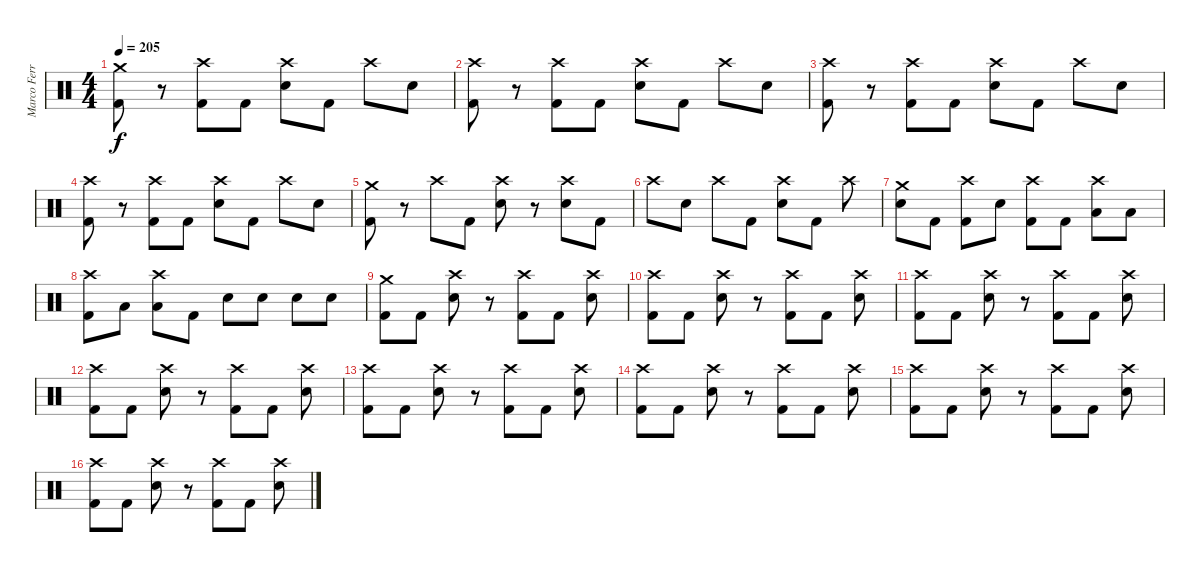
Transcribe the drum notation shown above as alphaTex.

\track ("Marco Ferro" "Marco Ferr") {instrument percussion}
\staff {score}
\articulation defaults
\ts (4 4)
\tempo 205
\clef neutral
\ks c
("Crash medium (hit)" "Kick (hit) 2").8{dy f} r.8 ("Crash high (hit)" "Kick (hit) 2").8 "Kick (hit) 2".8 ("Crash high (hit)" "Electric Snare (hit)").8 "Kick (hit) 2".8 "Crash high (hit)".8 "Electric Snare (hit)".8 |
("Crash high (hit)" "Kick (hit) 2").8 r.8 ("Crash high (hit)" "Kick (hit) 2").8 "Kick (hit) 2".8 ("Crash high (hit)" "Electric Snare (hit)").8 "Kick (hit) 2".8 "Crash high (hit)".8 "Electric Snare (hit)".8 |
("Crash high (hit)" "Kick (hit) 2").8 r.8 ("Crash high (hit)" "Kick (hit) 2").8 "Kick (hit) 2".8 ("Crash high (hit)" "Electric Snare (hit)").8 "Kick (hit) 2".8 "Crash high (hit)".8 "Electric Snare (hit)".8 |
("Crash high (hit)" "Kick (hit) 2").8 r.8 ("Crash high (hit)" "Kick (hit) 2").8 "Kick (hit) 2".8 ("Crash high (hit)" "Electric Snare (hit)").8 "Kick (hit) 2".8 "Crash high (hit)".8 "Electric Snare (hit)".8 |
("Crash medium (hit)" "Kick (hit) 2").8 r.8 "Crash high (hit)".8 "Kick (hit) 2".8 ("Crash high (hit)" "Electric Snare (hit)").8 r.8 ("Crash high (hit)" "Electric Snare (hit)").8 "Kick (hit) 2".8 |
"Crash high (hit)".8 "Electric Snare (hit)".8 "Crash high (hit)".8 "Kick (hit) 2".8 ("Crash high (hit)" "Electric Snare (hit)").8 "Kick (hit) 2".8 "Crash high (hit)".8 |
("Crash medium (hit)" "Electric Snare (hit)").8 "Kick (hit) 2".8 ("Crash high (hit)" "Kick (hit) 2").8 "Electric Snare (hit)".8 ("Crash high (hit)" "Kick (hit) 2").8 "Kick (hit) 2".8 ("Crash high (hit)" "Low Tom (hit)").8 "Low Tom (hit)".8 |
("Crash high (hit)" "Kick (hit) 2").8 "Low Tom (hit)".8 ("Crash high (hit)" "Low Tom (hit)").8 "Kick (hit) 2".8 "Electric Snare (hit)".8 "Electric Snare (hit)".8 "Electric Snare (hit)".8 "Electric Snare (hit)".8 |
("Crash medium (hit)" "Kick (hit) 2").8 "Kick (hit) 2".8 ("Crash high (hit)" "Electric Snare (hit)").8 r.8 ("Crash high (hit)" "Kick (hit) 2").8 "Kick (hit) 2".8 ("Crash high (hit)" "Electric Snare (hit)").8 |
("Crash high (hit)" "Kick (hit) 2").8 "Kick (hit) 2".8 ("Crash high (hit)" "Electric Snare (hit)").8 r.8 ("Crash high (hit)" "Kick (hit) 2").8 "Kick (hit) 2".8 ("Crash high (hit)" "Electric Snare (hit)").8 |
("Crash high (hit)" "Kick (hit) 2").8 "Kick (hit) 2".8 ("Crash high (hit)" "Electric Snare (hit)").8 r.8 ("Crash high (hit)" "Kick (hit) 2").8 "Kick (hit) 2".8 ("Crash high (hit)" "Electric Snare (hit)").8 |
("Crash high (hit)" "Kick (hit) 2").8 "Kick (hit) 2".8 ("Crash high (hit)" "Electric Snare (hit)").8 r.8 ("Crash high (hit)" "Kick (hit) 2").8 "Kick (hit) 2".8 ("Crash high (hit)" "Electric Snare (hit)").8 |
("Crash high (hit)" "Kick (hit) 2").8 "Kick (hit) 2".8 ("Crash high (hit)" "Electric Snare (hit)").8 r.8 ("Crash high (hit)" "Kick (hit) 2").8 "Kick (hit) 2".8 ("Crash high (hit)" "Electric Snare (hit)").8 |
("Crash high (hit)" "Kick (hit) 2").8 "Kick (hit) 2".8 ("Crash high (hit)" "Electric Snare (hit)").8 r.8 ("Crash high (hit)" "Kick (hit) 2").8 "Kick (hit) 2".8 ("Crash high (hit)" "Electric Snare (hit)").8 |
("Crash high (hit)" "Kick (hit) 2").8 "Kick (hit) 2".8 ("Crash high (hit)" "Electric Snare (hit)").8 r.8 ("Crash high (hit)" "Kick (hit) 2").8 "Kick (hit) 2".8 ("Crash high (hit)" "Electric Snare (hit)").8 |
("Crash high (hit)" "Kick (hit) 2").8 "Kick (hit) 2".8 ("Crash high (hit)" "Electric Snare (hit)").8 r.8 ("Crash high (hit)" "Kick (hit) 2").8 "Kick (hit) 2".8 ("Crash high (hit)" "Electric Snare (hit)").8
